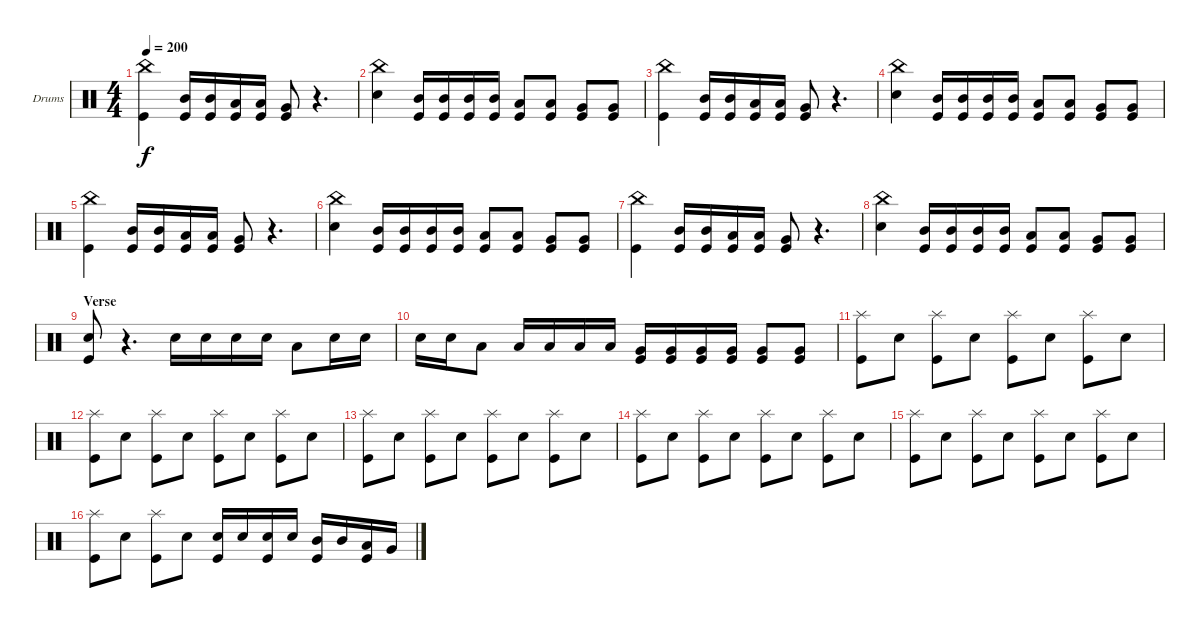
\defaultSystemsLayout 4
\bracketExtendMode groupsimilarinstruments
\firstSystemTrackNameOrientation horizontal
\otherSystemsTrackNameOrientation horizontal
\track ("Drumkit" "Drums") {instrument percussion}
\staff {score}
\articulation defaults
\ts (4 4)
\tempo 200
\clef neutral
\ks c
("Kick (hit)" "China (hit)").4{dy f} ("Kick (hit)" "Mid Tom (hit)").16 ("Kick (hit)" "Mid Tom (hit)").16 ("Kick (hit)" "Low Tom (hit)").16 ("Kick (hit)" "Low Tom (hit)").16 ("Kick (hit)" "Very Low Tom (hit)").8 r.4{d} |
("Snare (hit) 2" "China (hit)").4 ("Kick (hit)" "Mid Tom (hit)").16 ("Kick (hit)" "Mid Tom (hit)").16 ("Kick (hit)" "Mid Tom (hit)").16 ("Kick (hit)" "Mid Tom (hit)").16 ("Kick (hit)" "Low Tom (hit)").8 ("Kick (hit)" "Low Tom (hit)").8 ("Kick (hit)" "Very Low Tom (hit)").8 ("Kick (hit)" "Very Low Tom (hit)").8 |
("Kick (hit)" "China (hit)").4 ("Kick (hit)" "Mid Tom (hit)").16 ("Kick (hit)" "Mid Tom (hit)").16 ("Kick (hit)" "Low Tom (hit)").16 ("Kick (hit)" "Low Tom (hit)").16 ("Kick (hit)" "Very Low Tom (hit)").8 r.4{d} |
("Snare (hit) 2" "China (hit)").4 ("Kick (hit)" "Mid Tom (hit)").16 ("Kick (hit)" "Mid Tom (hit)").16 ("Kick (hit)" "Mid Tom (hit)").16 ("Kick (hit)" "Mid Tom (hit)").16 ("Kick (hit)" "Low Tom (hit)").8 ("Kick (hit)" "Low Tom (hit)").8 ("Kick (hit)" "Very Low Tom (hit)").8 ("Kick (hit)" "Very Low Tom (hit)").8 |
("Kick (hit)" "China (hit)").4 ("Kick (hit)" "Mid Tom (hit)").16 ("Kick (hit)" "Mid Tom (hit)").16 ("Kick (hit)" "Low Tom (hit)").16 ("Kick (hit)" "Low Tom (hit)").16 ("Kick (hit)" "Very Low Tom (hit)").8 r.4{d} |
("Snare (hit) 2" "China (hit)").4 ("Kick (hit)" "Mid Tom (hit)").16 ("Kick (hit)" "Mid Tom (hit)").16 ("Kick (hit)" "Mid Tom (hit)").16 ("Kick (hit)" "Mid Tom (hit)").16 ("Kick (hit)" "Low Tom (hit)").8 ("Kick (hit)" "Low Tom (hit)").8 ("Kick (hit)" "Very Low Tom (hit)").8 ("Kick (hit)" "Very Low Tom (hit)").8 |
("Kick (hit)" "China (hit)").4 ("Kick (hit)" "Mid Tom (hit)").16 ("Kick (hit)" "Mid Tom (hit)").16 ("Kick (hit)" "Low Tom (hit)").16 ("Kick (hit)" "Low Tom (hit)").16 ("Kick (hit)" "Very Low Tom (hit)").8 r.4{d} |
("Snare (hit) 2" "China (hit)").4 ("Kick (hit)" "Mid Tom (hit)").16 ("Kick (hit)" "Mid Tom (hit)").16 ("Kick (hit)" "Mid Tom (hit)").16 ("Kick (hit)" "Mid Tom (hit)").16 ("Kick (hit)" "Low Tom (hit)").8 ("Kick (hit)" "Low Tom (hit)").8 ("Kick (hit)" "Very Low Tom (hit)").8 ("Kick (hit)" "Very Low Tom (hit)").8 |
\section ("" "Verse")
("Snare (hit) 2" "Kick (hit)").8 r.4{d} "Snare (hit) 2".16 "Snare (hit) 2".16 "Snare (hit) 2".16 "Snare (hit) 2".16 "Low Tom (hit)".8 "Snare (hit) 2".16 "Snare (hit) 2".16 |
"Snare (hit) 2".16 "Snare (hit) 2".16 "Low Tom (hit)".8 "Low Tom (hit)".16 "Low Tom (hit)".16 "Low Tom (hit)".16 "Low Tom (hit)".16 ("Very Low Tom (hit)" "Kick (hit)").16 ("Very Low Tom (hit)" "Kick (hit)").16 ("Very Low Tom (hit)" "Kick (hit)").16 ("Very Low Tom (hit)" "Kick (hit)").16 ("Very Low Tom (hit)" "Kick (hit)").8 ("Very Low Tom (hit)" "Kick (hit)").8 |
("Splash (hit)" "Kick (hit)").8 "Snare (hit) 2".8 ("Splash (hit)" "Kick (hit)").8 "Snare (hit) 2".8 ("Splash (hit)" "Kick (hit)").8 "Snare (hit) 2".8 ("Splash (hit)" "Kick (hit)").8 "Snare (hit) 2".8 |
("Splash (hit)" "Kick (hit)").8 "Snare (hit) 2".8 ("Splash (hit)" "Kick (hit)").8 "Snare (hit) 2".8 ("Splash (hit)" "Kick (hit)").8 "Snare (hit) 2".8 ("Splash (hit)" "Kick (hit)").8 "Snare (hit) 2".8 |
("Splash (hit)" "Kick (hit)").8 "Snare (hit) 2".8 ("Splash (hit)" "Kick (hit)").8 "Snare (hit) 2".8 ("Splash (hit)" "Kick (hit)").8 "Snare (hit) 2".8 ("Splash (hit)" "Kick (hit)").8 "Snare (hit) 2".8 |
("Splash (hit)" "Kick (hit)").8 "Snare (hit) 2".8 ("Splash (hit)" "Kick (hit)").8 "Snare (hit) 2".8 ("Splash (hit)" "Kick (hit)").8 "Snare (hit) 2".8 ("Splash (hit)" "Kick (hit)").8 "Snare (hit) 2".8 |
("Splash (hit)" "Kick (hit)").8 "Snare (hit) 2".8 ("Splash (hit)" "Kick (hit)").8 "Snare (hit) 2".8 ("Splash (hit)" "Kick (hit)").8 "Snare (hit) 2".8 ("Splash (hit)" "Kick (hit)").8 "Snare (hit) 2".8 |
("Splash (hit)" "Kick (hit)").8 "Snare (hit) 2".8 ("Splash (hit)" "Kick (hit)").8 "Snare (hit) 2".8 ("Snare (hit) 2" "Kick (hit)").16 "Snare (hit) 2".16 ("Snare (hit) 2" "Kick (hit)").16 "Snare (hit) 2".16 ("Mid Tom (hit)" "Kick (hit)").16 "Mid Tom (hit)".16 ("Low Tom (hit)" "Kick (hit)").16 "Very Low Tom (hit)".16
